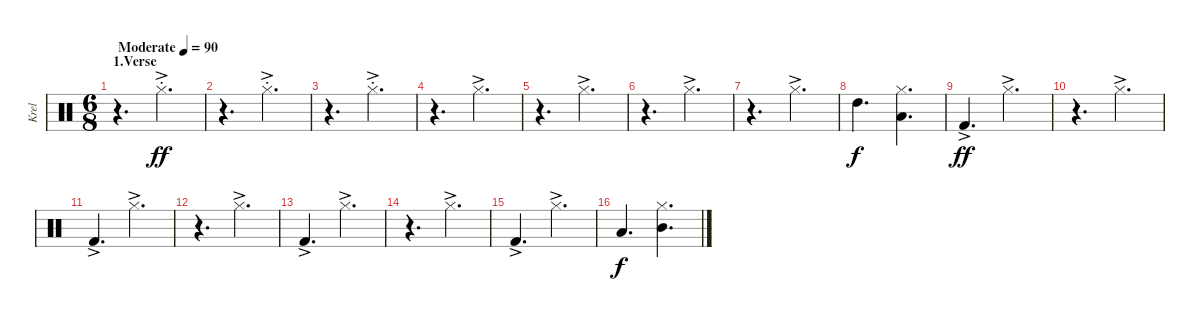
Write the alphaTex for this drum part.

\track ("Krel" "Krel") {instrument percussion}
\staff {score}
\articulation defaults
\ts (6 8)
\section ("" "1.Verse")
\tempo (90 "Moderate")
\clef neutral
\ks c
r.4{d dy ff} "Hi-Hat (closed)"{ac st}.4{d} |
r.4{d} "Hi-Hat (closed)"{ac st}.4{d} |
r.4{d} "Hi-Hat (closed)"{ac st}.4{d} |
r.4{d} "Hi-Hat (closed)"{ac}.4{d} |
r.4{d} "Hi-Hat (closed)"{ac}.4{d} |
r.4{d} "Hi-Hat (closed)"{ac}.4{d} |
r.4{d} "Hi-Hat (closed)"{ac}.4{d} |
"High Tom (hit)".4{d dy f} ("Hi-Hat (closed)" "Low Tom (hit)").4{d} |
"Kick (hit) 2"{ac}.4{d dy ff} "Hi-Hat (closed)"{ac}.4{d} |
r.4{d} "Hi-Hat (closed)"{ac}.4{d} |
"Kick (hit) 2"{ac}.4{d} "Hi-Hat (closed)"{ac}.4{d} |
r.4{d} "Hi-Hat (closed)"{ac}.4{d} |
"Kick (hit) 2"{ac}.4{d} "Hi-Hat (closed)"{ac}.4{d} |
r.4{d} "Hi-Hat (closed)"{ac}.4{d} |
"Kick (hit) 2"{ac}.4{d} "Hi-Hat (closed)"{ac}.4{d} |
"Low Tom (hit)".4{d dy f} ("Hi-Hat (closed)" "Mid Tom (hit)").4{d}
